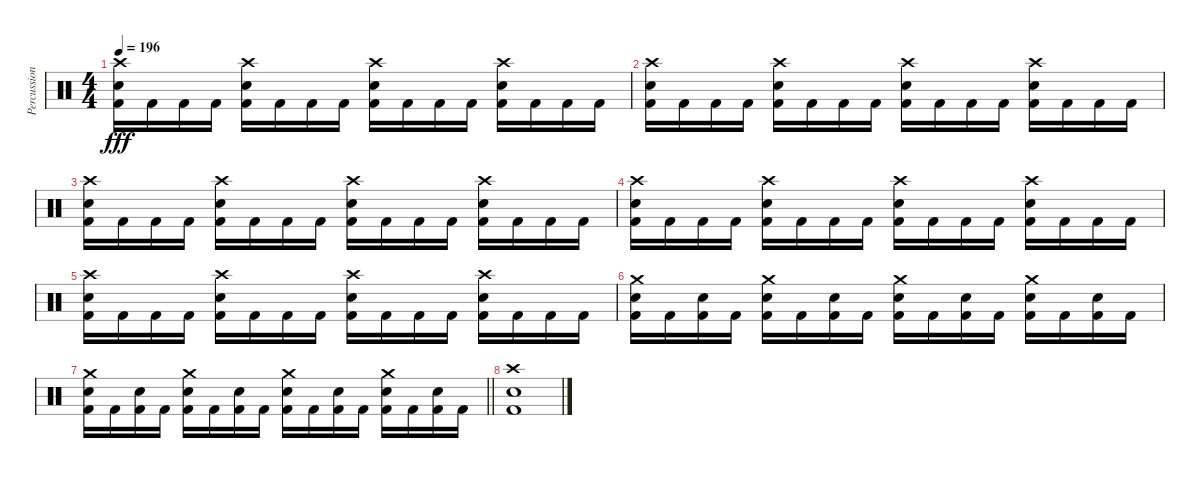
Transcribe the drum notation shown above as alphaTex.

\track ("Percussion" "Percussion") {instrument percussion}
\staff {score}
\articulation defaults
\ts (4 4)
\tempo 196
\clef neutral
\ks c
("Crash high (hit)" "Electric Snare (hit)" "Kick (hit) 2").16{dy fff} "Kick (hit) 2".16 "Kick (hit) 2".16 "Kick (hit) 2".16 ("Crash high (hit)" "Electric Snare (hit)" "Kick (hit) 2").16 "Kick (hit) 2".16 "Kick (hit) 2".16 "Kick (hit) 2".16 ("Crash high (hit)" "Electric Snare (hit)" "Kick (hit) 2").16 "Kick (hit) 2".16 "Kick (hit) 2".16 "Kick (hit) 2".16 ("Crash high (hit)" "Electric Snare (hit)" "Kick (hit) 2").16 "Kick (hit) 2".16 "Kick (hit) 2".16 "Kick (hit) 2".16 |
("Crash high (hit)" "Electric Snare (hit)" "Kick (hit) 2").16 "Kick (hit) 2".16 "Kick (hit) 2".16 "Kick (hit) 2".16 ("Crash high (hit)" "Electric Snare (hit)" "Kick (hit) 2").16 "Kick (hit) 2".16 "Kick (hit) 2".16 "Kick (hit) 2".16 ("Crash high (hit)" "Electric Snare (hit)" "Kick (hit) 2").16 "Kick (hit) 2".16 "Kick (hit) 2".16 "Kick (hit) 2".16 ("Crash high (hit)" "Electric Snare (hit)" "Kick (hit) 2").16 "Kick (hit) 2".16 "Kick (hit) 2".16 "Kick (hit) 2".16 |
("Crash high (hit)" "Electric Snare (hit)" "Kick (hit) 2").16 "Kick (hit) 2".16 "Kick (hit) 2".16 "Kick (hit) 2".16 ("Crash high (hit)" "Electric Snare (hit)" "Kick (hit) 2").16 "Kick (hit) 2".16 "Kick (hit) 2".16 "Kick (hit) 2".16 ("Crash high (hit)" "Electric Snare (hit)" "Kick (hit) 2").16 "Kick (hit) 2".16 "Kick (hit) 2".16 "Kick (hit) 2".16 ("Crash high (hit)" "Electric Snare (hit)" "Kick (hit) 2").16 "Kick (hit) 2".16 "Kick (hit) 2".16 "Kick (hit) 2".16 |
("Crash high (hit)" "Electric Snare (hit)" "Kick (hit) 2").16 "Kick (hit) 2".16 "Kick (hit) 2".16 "Kick (hit) 2".16 ("Crash high (hit)" "Electric Snare (hit)" "Kick (hit) 2").16 "Kick (hit) 2".16 "Kick (hit) 2".16 "Kick (hit) 2".16 ("Crash high (hit)" "Electric Snare (hit)" "Kick (hit) 2").16 "Kick (hit) 2".16 "Kick (hit) 2".16 "Kick (hit) 2".16 ("Crash high (hit)" "Electric Snare (hit)" "Kick (hit) 2").16 "Kick (hit) 2".16 "Kick (hit) 2".16 "Kick (hit) 2".16 |
("Crash high (hit)" "Electric Snare (hit)" "Kick (hit) 2").16 "Kick (hit) 2".16 "Kick (hit) 2".16 "Kick (hit) 2".16 ("Crash high (hit)" "Electric Snare (hit)" "Kick (hit) 2").16 "Kick (hit) 2".16 "Kick (hit) 2".16 "Kick (hit) 2".16 ("Crash high (hit)" "Electric Snare (hit)" "Kick (hit) 2").16 "Kick (hit) 2".16 "Kick (hit) 2".16 "Kick (hit) 2".16 ("Crash high (hit)" "Electric Snare (hit)" "Kick (hit) 2").16 "Kick (hit) 2".16 "Kick (hit) 2".16 "Kick (hit) 2".16 |
("Crash medium (hit)" "Electric Snare (hit)" "Kick (hit) 2").16 "Kick (hit) 2".16 ("Electric Snare (hit)" "Kick (hit) 2").16 "Kick (hit) 2".16 ("Crash medium (hit)" "Electric Snare (hit)" "Kick (hit) 2").16 "Kick (hit) 2".16 ("Electric Snare (hit)" "Kick (hit) 2").16 "Kick (hit) 2".16 ("Crash medium (hit)" "Electric Snare (hit)" "Kick (hit) 2").16 "Kick (hit) 2".16 ("Electric Snare (hit)" "Kick (hit) 2").16 "Kick (hit) 2".16 ("Crash medium (hit)" "Electric Snare (hit)" "Kick (hit) 2").16 "Kick (hit) 2".16 ("Electric Snare (hit)" "Kick (hit) 2").16 "Kick (hit) 2".16 |
\barLineRight lightlight
("Crash medium (hit)" "Electric Snare (hit)" "Kick (hit) 2").16 "Kick (hit) 2".16 ("Electric Snare (hit)" "Kick (hit) 2").16 "Kick (hit) 2".16 ("Crash medium (hit)" "Electric Snare (hit)" "Kick (hit) 2").16 "Kick (hit) 2".16 ("Electric Snare (hit)" "Kick (hit) 2").16 "Kick (hit) 2".16 ("Crash medium (hit)" "Electric Snare (hit)" "Kick (hit) 2").16 "Kick (hit) 2".16 ("Electric Snare (hit)" "Kick (hit) 2").16 "Kick (hit) 2".16 ("Crash medium (hit)" "Electric Snare (hit)" "Kick (hit) 2").16 "Kick (hit) 2".16 ("Electric Snare (hit)" "Kick (hit) 2").16 "Kick (hit) 2".16 |
("Crash high (hit)" "Electric Snare (hit)" "Kick (hit) 2").1
